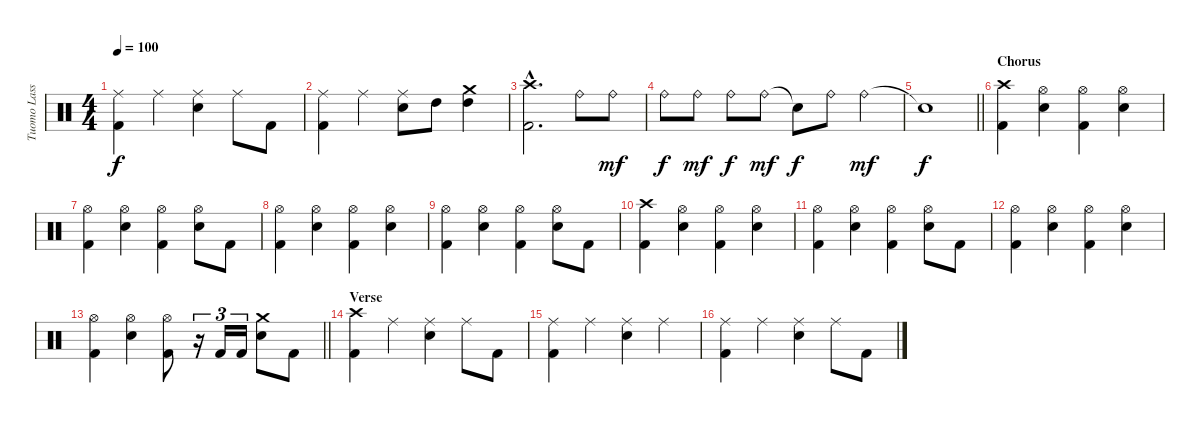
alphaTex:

\track ("Tuomo Lassila" "Tuomo Lass") {instrument percussion}
\staff {score}
\articulation defaults
\ts (4 4)
\tempo 100
\clef neutral
\ks c
("Ride (middle)" "Kick (hit) 2").4{dy f} "Ride (middle)".4 ("Ride (middle)" "Electric Snare (hit)").4 "Ride (middle)".8 "Kick (hit) 2".8 |
("Ride (middle)" "Kick (hit) 2").4 "Ride (middle)".4 ("Ride (middle)" "Electric Snare (hit)").8 "High Tom (hit)".8 ("Crash medium (hit)" "High Tom (hit)").4 |
("Crash high (hit)"{hac} "Kick (hit) 2"{hac}).2{d} "Ride (bell)".8 "Ride (bell)".8{dy mf} |
"Ride (bell)".8{dy f} "Ride (bell)".8{dy mf} "Ride (bell)".8{dy f} "Ride (bell)".8{dy mf} "Snare (hit)"{t}.8{dy f} "Ride (bell)".8 "Ride (bell)".4{dy mf} |
\barLineRight lightlight "Snare (hit)"{t}.1{dy f}
|
\section ("" "Chorus")
("Crash high (hit)" "Kick (hit) 2").4 ("Hi-Hat (open)" "Electric Snare (hit)").4 ("Hi-Hat (open)" "Kick (hit) 2").4 ("Hi-Hat (open)" "Electric Snare (hit)").4 |
("Hi-Hat (open)" "Kick (hit) 2").4 ("Hi-Hat (open)" "Electric Snare (hit)").4 ("Hi-Hat (open)" "Kick (hit) 2").4 ("Hi-Hat (open)" "Electric Snare (hit)").8 "Kick (hit) 2".8 |
("Hi-Hat (open)" "Kick (hit) 2").4 ("Hi-Hat (open)" "Electric Snare (hit)").4 ("Hi-Hat (open)" "Kick (hit) 2").4 ("Hi-Hat (open)" "Electric Snare (hit)").4 |
("Hi-Hat (open)" "Kick (hit) 2").4 ("Hi-Hat (open)" "Electric Snare (hit)").4 ("Hi-Hat (open)" "Kick (hit) 2").4 ("Hi-Hat (open)" "Electric Snare (hit)").8 "Kick (hit) 2".8 |
("Crash high (hit)" "Kick (hit) 2").4 ("Hi-Hat (open)" "Electric Snare (hit)").4 ("Hi-Hat (open)" "Kick (hit) 2").4 ("Hi-Hat (open)" "Electric Snare (hit)").4 |
("Hi-Hat (open)" "Kick (hit) 2").4 ("Hi-Hat (open)" "Electric Snare (hit)").4 ("Hi-Hat (open)" "Kick (hit) 2").4 ("Hi-Hat (open)" "Electric Snare (hit)").8 "Kick (hit) 2".8 |
("Hi-Hat (open)" "Kick (hit) 2").4 ("Hi-Hat (open)" "Electric Snare (hit)").4 ("Hi-Hat (open)" "Kick (hit) 2").4 ("Hi-Hat (open)" "Electric Snare (hit)").4 |
\barLineRight lightlight
("Hi-Hat (open)" "Kick (hit) 2").4 ("Hi-Hat (open)" "Electric Snare (hit)").4 ("Hi-Hat (open)" "Kick (hit) 2").8 r.16{tu (3 2)} "Kick (hit) 2".16{tu (3 2)} "Kick (hit) 2".16{tu (3 2)} ("Crash medium (hit)" "Electric Snare (hit)").8 "Kick (hit) 2".8 |
\section ("" "Verse")
("Crash high (hit)" "Kick (hit) 2").4 "Ride (middle)".4 ("Ride (middle)" "Electric Snare (hit)").4 "Ride (middle)".8 "Kick (hit) 2".8 |
("Ride (middle)" "Kick (hit) 2").4 "Ride (middle)".4 ("Ride (middle)" "Electric Snare (hit)").4 "Ride (middle)".4 |
("Ride (middle)" "Kick (hit) 2").4 "Ride (middle)".4 ("Ride (middle)" "Electric Snare (hit)").4 "Ride (middle)".8 "Kick (hit) 2".8
